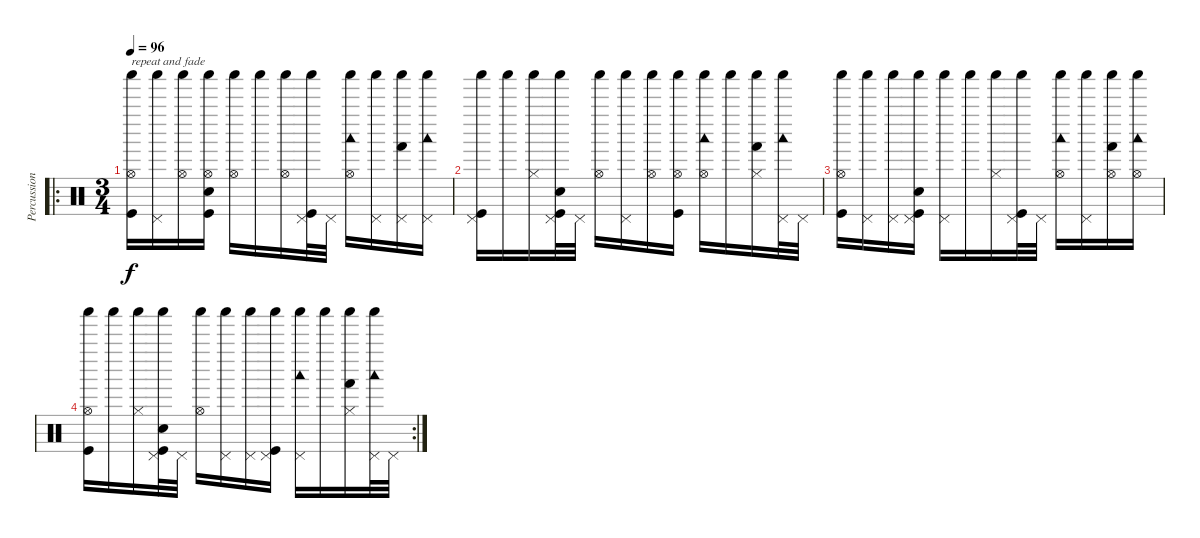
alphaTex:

\track ("Percussions" "Percussion") {instrument percussion}
\staff {score}
\articulation defaults
\ro
\ts (3 4)
\tempo 96
\clef neutral
\ks c
("Hi-Hat (open)" "Shaker (hit)" "Kick (hit)").16{txt "repeat and fade" dy f volume 6} ("Pedal Hi-Hat (hit)" "Shaker (hit)").16 ("Hi-Hat (open)" "Shaker (hit)").16 ("Hi-Hat (open)" "Shaker (hit)" "Metronome (bell)" "Kick (hit)").16 ("Hi-Hat (open)" "Shaker (hit)").16 "Shaker (hit)".16 ("Hi-Hat (open)" "Shaker (hit)").16 ("Pedal Hi-Hat (hit)" "Shaker (hit)" "Kick (hit)").32 "Pedal Hi-Hat (hit)".32 ("Hi-Hat (open)" "Shaker (hit)" "Woodblock low (hit)").16 ("Pedal Hi-Hat (hit)" "Shaker (hit)").16 ("Pedal Hi-Hat (hit)" "Shaker (hit)" "Hand (hit)").16 ("Pedal Hi-Hat (hit)" "Shaker (hit)" "Woodblock low (hit)").16 |
("Pedal Hi-Hat (hit)" "Shaker (hit)" "Kick (hit)").16 "Shaker (hit)".16 ("Hi-Hat (closed)" "Shaker (hit)").16 ("Pedal Hi-Hat (hit)" "Shaker (hit)" "Metronome (bell)" "Kick (hit)").32 "Pedal Hi-Hat (hit)".32 ("Hi-Hat (open)" "Shaker (hit)").16 ("Pedal Hi-Hat (hit)" "Shaker (hit)").16 ("Hi-Hat (open)" "Shaker (hit)").16 ("Hi-Hat (open)" "Shaker (hit)" "Kick (hit)").16 ("Hi-Hat (open)" "Shaker (hit)" "Woodblock low (hit)").16 "Shaker (hit)".16 ("Hi-Hat (closed)" "Shaker (hit)" "Hand (hit)").16 ("Pedal Hi-Hat (hit)" "Shaker (hit)" "Woodblock low (hit)").32 "Pedal Hi-Hat (hit)".32 |
("Hi-Hat (open)" "Shaker (hit)" "Kick (hit)").16 ("Pedal Hi-Hat (hit)" "Shaker (hit)").16 ("Pedal Hi-Hat (hit)" "Shaker (hit)").16 ("Pedal Hi-Hat (hit)" "Shaker (hit)" "Metronome (bell)" "Kick (hit)").16 ("Pedal Hi-Hat (hit)" "Shaker (hit)").16 "Shaker (hit)".16 ("Hi-Hat (closed)" "Shaker (hit)").16 ("Pedal Hi-Hat (hit)" "Shaker (hit)" "Kick (hit)").32 "Pedal Hi-Hat (hit)".32 ("Hi-Hat (open)" "Shaker (hit)" "Woodblock low (hit)").16 ("Pedal Hi-Hat (hit)" "Shaker (hit)").16 ("Hi-Hat (open)" "Shaker (hit)" "Hand (hit)").16 ("Hi-Hat (open)" "Shaker (hit)" "Woodblock low (hit)").16 |
\rc 2
("Hi-Hat (open)" "Shaker (hit)" "Kick (hit)").16 "Shaker (hit)".16 ("Hi-Hat (closed)" "Shaker (hit)").16 ("Pedal Hi-Hat (hit)" "Shaker (hit)" "Metronome (bell)" "Kick (hit)").32 "Pedal Hi-Hat (hit)".32 ("Hi-Hat (open)" "Shaker (hit)").16 ("Pedal Hi-Hat (hit)" "Shaker (hit)").16 ("Pedal Hi-Hat (hit)" "Shaker (hit)").16 ("Pedal Hi-Hat (hit)" "Shaker (hit)" "Kick (hit)").16 ("Pedal Hi-Hat (hit)" "Shaker (hit)" "Woodblock low (hit)").16 "Shaker (hit)".16 ("Hi-Hat (closed)" "Shaker (hit)" "Hand (hit)").16 ("Pedal Hi-Hat (hit)" "Shaker (hit)" "Woodblock low (hit)").32 "Pedal Hi-Hat (hit)".32
